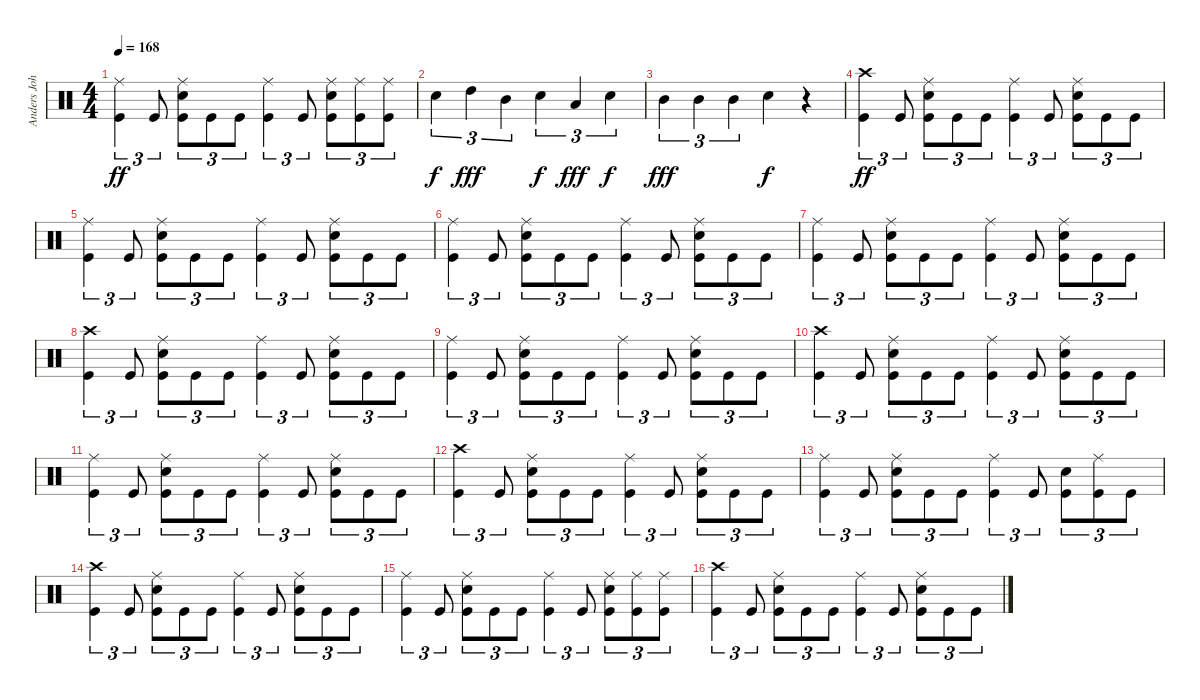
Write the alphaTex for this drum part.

\track ("Anders Johansson (Drums)" "Anders Joh") {instrument percussion}
\staff {score}
\articulation defaults
\ts (4 4)
\tempo 168
\clef neutral
\ks c
("Ride (middle)" "Kick (hit)").4{tu (3 2) dy ff} "Kick (hit)".8{tu (3 2)} ("Ride (middle)" "Electric Snare (hit)" "Kick (hit)").8{tu (3 2)} "Kick (hit)".8{tu (3 2)} "Kick (hit)".8{tu (3 2)} ("Ride (middle)" "Kick (hit)").4{tu (3 2)} "Kick (hit)".8{tu (3 2)} ("Ride (middle)" "Electric Snare (hit)" "Kick (hit)").8{tu (3 2)} ("Ride (middle)" "Kick (hit)").8{tu (3 2)} ("Ride (middle)" "Kick (hit)").8{tu (3 2)} |
"Electric Snare (hit)".4{tu (3 2) dy f} "High Tom (hit)".4{tu (3 2) dy fff} "Mid Tom (hit)".4{tu (3 2)} "Electric Snare (hit)".4{tu (3 2) dy f} "Low Tom (hit)".4{tu (3 2) dy fff} "Electric Snare (hit)".4{tu (3 2) dy f} |
"Mid Tom (hit)".4{tu (3 2) dy fff} "Mid Tom (hit)".4{tu (3 2)} "Mid Tom (hit)".4{tu (3 2)} "Electric Snare (hit)".4{dy f} r.4 |
("Crash high (hit)" "Kick (hit)").4{tu (3 2) dy ff} "Kick (hit)".8{tu (3 2)} ("Ride (middle)" "Electric Snare (hit)" "Kick (hit)").8{tu (3 2)} "Kick (hit)".8{tu (3 2)} "Kick (hit)".8{tu (3 2)} ("Ride (middle)" "Kick (hit)").4{tu (3 2)} "Kick (hit)".8{tu (3 2)} ("Ride (middle)" "Electric Snare (hit)" "Kick (hit)").8{tu (3 2)} "Kick (hit)".8{tu (3 2)} "Kick (hit)".8{tu (3 2)} |
("Ride (middle)" "Kick (hit)").4{tu (3 2)} "Kick (hit)".8{tu (3 2)} ("Ride (middle)" "Electric Snare (hit)" "Kick (hit)").8{tu (3 2)} "Kick (hit)".8{tu (3 2)} "Kick (hit)".8{tu (3 2)} ("Ride (middle)" "Kick (hit)").4{tu (3 2)} "Kick (hit)".8{tu (3 2)} ("Ride (middle)" "Electric Snare (hit)" "Kick (hit)").8{tu (3 2)} "Kick (hit)".8{tu (3 2)} "Kick (hit)".8{tu (3 2)} |
("Ride (middle)" "Kick (hit)").4{tu (3 2)} "Kick (hit)".8{tu (3 2)} ("Ride (middle)" "Electric Snare (hit)" "Kick (hit)").8{tu (3 2)} "Kick (hit)".8{tu (3 2)} "Kick (hit)".8{tu (3 2)} ("Ride (middle)" "Kick (hit)").4{tu (3 2)} "Kick (hit)".8{tu (3 2)} ("Ride (middle)" "Electric Snare (hit)" "Kick (hit)").8{tu (3 2)} "Kick (hit)".8{tu (3 2)} "Kick (hit)".8{tu (3 2)} |
("Ride (middle)" "Kick (hit)").4{tu (3 2)} "Kick (hit)".8{tu (3 2)} ("Ride (middle)" "Electric Snare (hit)" "Kick (hit)").8{tu (3 2)} "Kick (hit)".8{tu (3 2)} "Kick (hit)".8{tu (3 2)} ("Ride (middle)" "Kick (hit)").4{tu (3 2)} "Kick (hit)".8{tu (3 2)} ("Ride (middle)" "Electric Snare (hit)" "Kick (hit)").8{tu (3 2)} "Kick (hit)".8{tu (3 2)} "Kick (hit)".8{tu (3 2)} |
("Crash high (hit)" "Kick (hit)").4{tu (3 2)} "Kick (hit)".8{tu (3 2)} ("Ride (middle)" "Electric Snare (hit)" "Kick (hit)").8{tu (3 2)} "Kick (hit)".8{tu (3 2)} "Kick (hit)".8{tu (3 2)} ("Ride (middle)" "Kick (hit)").4{tu (3 2)} "Kick (hit)".8{tu (3 2)} ("Ride (middle)" "Electric Snare (hit)" "Kick (hit)").8{tu (3 2)} "Kick (hit)".8{tu (3 2)} "Kick (hit)".8{tu (3 2)} |
("Ride (middle)" "Kick (hit)").4{tu (3 2)} "Kick (hit)".8{tu (3 2)} ("Ride (middle)" "Electric Snare (hit)" "Kick (hit)").8{tu (3 2)} "Kick (hit)".8{tu (3 2)} "Kick (hit)".8{tu (3 2)} ("Ride (middle)" "Kick (hit)").4{tu (3 2)} "Kick (hit)".8{tu (3 2)} ("Ride (middle)" "Electric Snare (hit)" "Kick (hit)").8{tu (3 2)} "Kick (hit)".8{tu (3 2)} "Kick (hit)".8{tu (3 2)} |
("Crash high (hit)" "Kick (hit)").4{tu (3 2)} "Kick (hit)".8{tu (3 2)} ("Ride (middle)" "Electric Snare (hit)" "Kick (hit)").8{tu (3 2)} "Kick (hit)".8{tu (3 2)} "Kick (hit)".8{tu (3 2)} ("Ride (middle)" "Kick (hit)").4{tu (3 2)} "Kick (hit)".8{tu (3 2)} ("Ride (middle)" "Electric Snare (hit)" "Kick (hit)").8{tu (3 2)} "Kick (hit)".8{tu (3 2)} "Kick (hit)".8{tu (3 2)} |
("Ride (middle)" "Kick (hit)").4{tu (3 2)} "Kick (hit)".8{tu (3 2)} ("Ride (middle)" "Electric Snare (hit)" "Kick (hit)").8{tu (3 2)} "Kick (hit)".8{tu (3 2)} "Kick (hit)".8{tu (3 2)} ("Ride (middle)" "Kick (hit)").4{tu (3 2)} "Kick (hit)".8{tu (3 2)} ("Ride (middle)" "Electric Snare (hit)" "Kick (hit)").8{tu (3 2)} "Kick (hit)".8{tu (3 2)} "Kick (hit)".8{tu (3 2)} |
("Crash high (hit)" "Kick (hit)").4{tu (3 2)} "Kick (hit)".8{tu (3 2)} ("Ride (middle)" "Electric Snare (hit)" "Kick (hit)").8{tu (3 2)} "Kick (hit)".8{tu (3 2)} "Kick (hit)".8{tu (3 2)} ("Ride (middle)" "Kick (hit)").4{tu (3 2)} "Kick (hit)".8{tu (3 2)} ("Ride (middle)" "Electric Snare (hit)" "Kick (hit)").8{tu (3 2)} "Kick (hit)".8{tu (3 2)} "Kick (hit)".8{tu (3 2)} |
("Ride (middle)" "Kick (hit)").4{tu (3 2)} "Kick (hit)".8{tu (3 2)} ("Ride (middle)" "Electric Snare (hit)" "Kick (hit)").8{tu (3 2)} "Kick (hit)".8{tu (3 2)} "Kick (hit)".8{tu (3 2)} ("Ride (middle)" "Kick (hit)").4{tu (3 2)} "Kick (hit)".8{tu (3 2)} ("Electric Snare (hit)" "Kick (hit)").8{tu (3 2)} ("Ride (middle)" "Kick (hit)").8{tu (3 2)} "Kick (hit)".8{tu (3 2)} |
("Crash high (hit)" "Kick (hit)").4{tu (3 2)} "Kick (hit)".8{tu (3 2)} ("Ride (middle)" "Electric Snare (hit)" "Kick (hit)").8{tu (3 2)} "Kick (hit)".8{tu (3 2)} "Kick (hit)".8{tu (3 2)} ("Ride (middle)" "Kick (hit)").4{tu (3 2)} "Kick (hit)".8{tu (3 2)} ("Ride (middle)" "Electric Snare (hit)" "Kick (hit)").8{tu (3 2)} "Kick (hit)".8{tu (3 2)} "Kick (hit)".8{tu (3 2)} |
("Ride (middle)" "Kick (hit)").4{tu (3 2)} "Kick (hit)".8{tu (3 2)} ("Ride (middle)" "Electric Snare (hit)" "Kick (hit)").8{tu (3 2)} "Kick (hit)".8{tu (3 2)} "Kick (hit)".8{tu (3 2)} ("Ride (middle)" "Kick (hit)").4{tu (3 2)} "Kick (hit)".8{tu (3 2)} ("Ride (middle)" "Electric Snare (hit)" "Kick (hit)").8{tu (3 2)} ("Ride (middle)" "Kick (hit)").8{tu (3 2)} ("Ride (middle)" "Kick (hit)").8{tu (3 2)} |
("Crash high (hit)" "Kick (hit)").4{tu (3 2)} "Kick (hit)".8{tu (3 2)} ("Ride (middle)" "Electric Snare (hit)" "Kick (hit)").8{tu (3 2)} "Kick (hit)".8{tu (3 2)} "Kick (hit)".8{tu (3 2)} ("Ride (middle)" "Kick (hit)").4{tu (3 2)} "Kick (hit)".8{tu (3 2)} ("Ride (middle)" "Electric Snare (hit)" "Kick (hit)").8{tu (3 2)} "Kick (hit)".8{tu (3 2)} "Kick (hit)".8{tu (3 2)}
